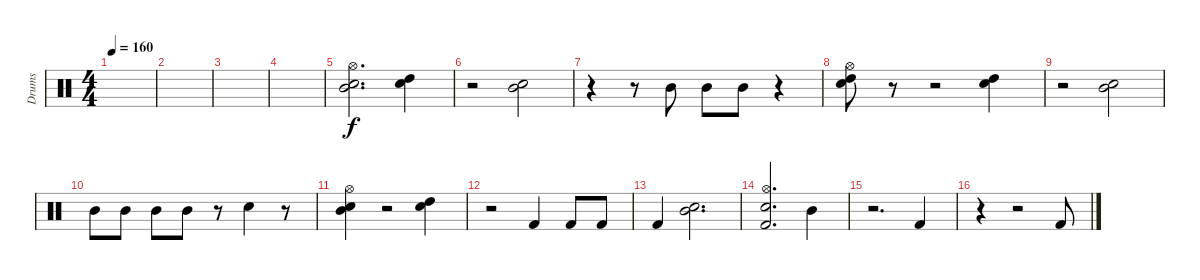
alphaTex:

\track ("Drums" "Drums") {instrument percussion}
\staff {score}
\articulation defaults
\ts (4 4)
\tempo 160
\clef neutral
\ks c
|
|
|
|
("Mid Tom (hit)" "Snare (hit) 2" "Hi-Hat (open)").2{d} ("High Tom (hit)" "Snare (hit) 2").4 |
r.2 ("Mid Tom (hit)" "Snare (hit) 2").2 |
r.4 r.8 "Mid Tom (hit)".8 "Mid Tom (hit)".8 "Mid Tom (hit)".8 r.4 |
("High Tom (hit)" "Snare (hit) 2" "Hi-Hat (open)").8 r.8 r.2 ("High Tom (hit)" "Snare (hit) 2").4 |
r.2 ("Mid Tom (hit)" "Snare (hit) 2").2 |
"Mid Tom (hit)".8 "Mid Tom (hit)".8 "Mid Tom (hit)".8 "Mid Tom (hit)".8 r.8 "Snare (hit) 2".4 r.8 |
("Mid Tom (hit)" "Snare (hit) 2" "Hi-Hat (open)").4 r.2 ("High Tom (hit)" "Snare (hit) 2").4 |
r.2 "Kick (hit) 2".4 "Kick (hit) 2".8 "Kick (hit) 2".8 |
"Kick (hit) 2".4 ("Mid Tom (hit)" "Snare (hit) 2").2{d} |
("Kick (hit) 2" "Snare (hit) 2" "Hi-Hat (open)").2{d} "Mid Tom (hit)".4 |
r.2{d} "Kick (hit) 2".4 |
r.4 r.2 "Kick (hit) 2".8
